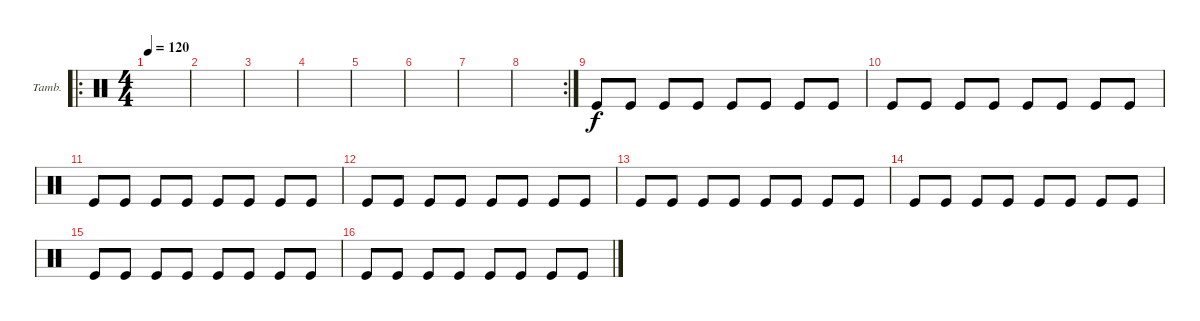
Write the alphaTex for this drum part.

\bracketExtendMode groupsimilarinstruments
\firstSystemTrackNameOrientation horizontal
\otherSystemsTrackNameOrientation horizontal
\track ("Tambourine" "Tamb.") {instrument percussion}
\staff {score}
\articulation defaults
\ro
\ts (4 4)
\tempo 120
\clef neutral
\scale
0.377049
\ks c
|
\scale
0.311475 |
\scale
0.333333 |
\scale
0.333333 |
\scale
0.333333 |
\scale
0.322034 |
\scale
0.322034 |
\rc 2
\scale
0.355932 |
\scale
0.333333 "Kick (hit)".8 "Kick (hit)".8 "Kick (hit)".8 "Kick (hit)".8 "Kick (hit)".8 "Kick (hit)".8 "Kick (hit)".8 "Kick (hit)".8 |
\scale
0.333333 "Kick (hit)".8 "Kick (hit)".8 "Kick (hit)".8 "Kick (hit)".8 "Kick (hit)".8 "Kick (hit)".8 "Kick (hit)".8 "Kick (hit)".8 |
\scale
0.333333 "Kick (hit)".8 "Kick (hit)".8 "Kick (hit)".8 "Kick (hit)".8 "Kick (hit)".8 "Kick (hit)".8 "Kick (hit)".8 "Kick (hit)".8 |
\scale
0.333333 "Kick (hit)".8 "Kick (hit)".8 "Kick (hit)".8 "Kick (hit)".8 "Kick (hit)".8 "Kick (hit)".8 "Kick (hit)".8 "Kick (hit)".8 |
\scale
0.333333 "Kick (hit)".8 "Kick (hit)".8 "Kick (hit)".8 "Kick (hit)".8 "Kick (hit)".8 "Kick (hit)".8 "Kick (hit)".8 "Kick (hit)".8 |
\scale
0.333333 "Kick (hit)".8 "Kick (hit)".8 "Kick (hit)".8 "Kick (hit)".8 "Kick (hit)".8 "Kick (hit)".8 "Kick (hit)".8 "Kick (hit)".8 |
\scale
0.333333 "Kick (hit)".8 "Kick (hit)".8 "Kick (hit)".8 "Kick (hit)".8 "Kick (hit)".8 "Kick (hit)".8 "Kick (hit)".8 "Kick (hit)".8 |
\scale
0.333333 "Kick (hit)".8 "Kick (hit)".8 "Kick (hit)".8 "Kick (hit)".8 "Kick (hit)".8 "Kick (hit)".8 "Kick (hit)".8 "Kick (hit)".8
